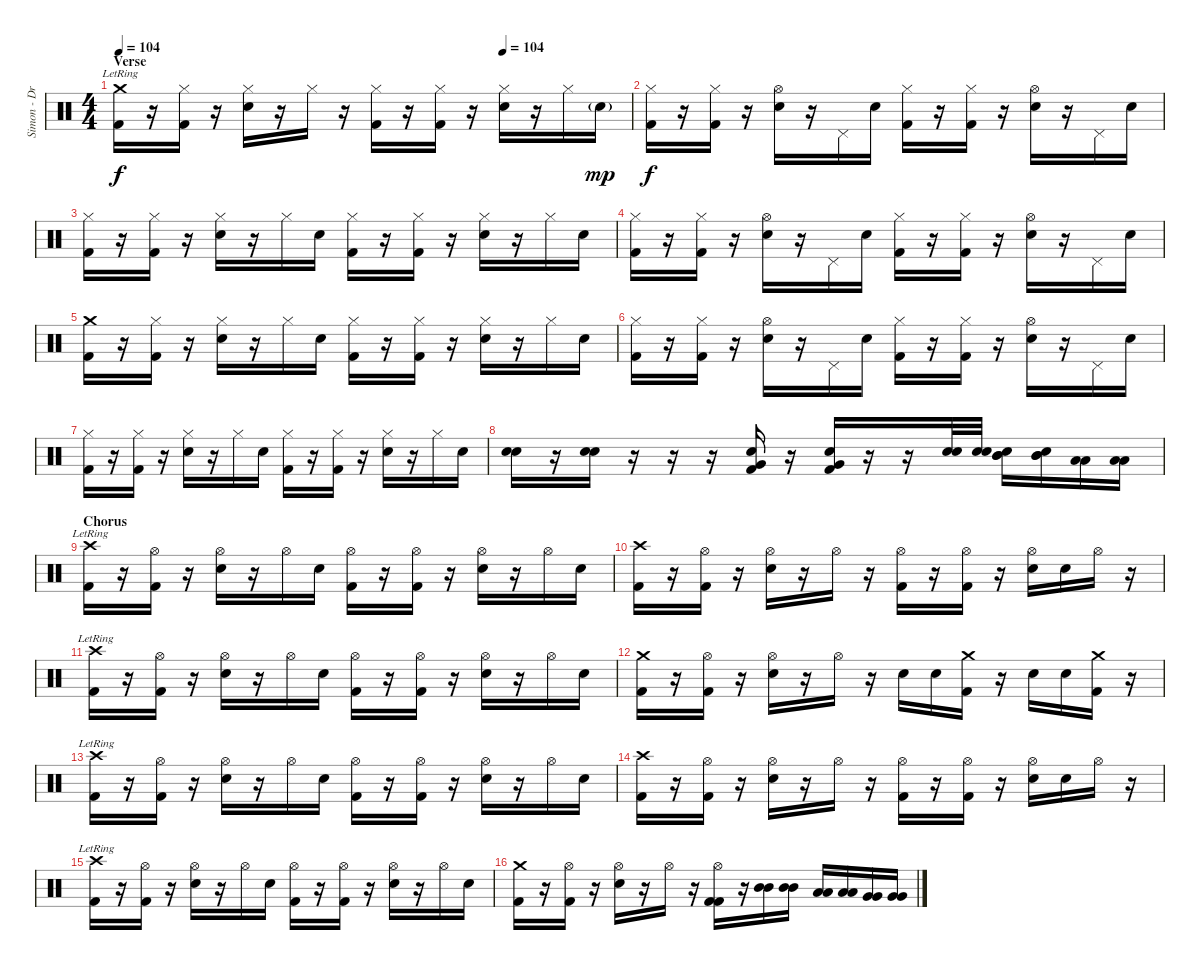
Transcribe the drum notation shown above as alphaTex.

\track ("Simon - Drums" "Simon - Dr") {instrument percussion}
\staff {score}
\articulation defaults
\ts (4 4)
\section ("" "Verse")
\tempo 104
\tempo (104 0.75)
\clef neutral
\ks c
("Crash medium (hit)"{lr} "Kick (hit) 2").16{dy f} r.16 ("Hi-Hat (closed)" "Kick (hit) 2").16 r.16 ("Hi-Hat (closed)" "Electric Snare (hit)").16 r.16 "Hi-Hat (closed)".16 r.16 ("Hi-Hat (closed)" "Kick (hit) 2").16 r.16 ("Hi-Hat (closed)" "Kick (hit) 2").16 r.16 ("Hi-Hat (closed)" "Electric Snare (hit)").16 r.16 "Hi-Hat (closed)".16 "Electric Snare (hit)"{g}.16{dy mp} |
("Hi-Hat (closed)" "Kick (hit) 2").16{dy f} r.16 ("Hi-Hat (closed)" "Kick (hit) 2").16 r.16 ("Hi-Hat (open)" "Electric Snare (hit)").16 r.16 "Pedal Hi-Hat (hit)".16 "Electric Snare (hit)".16 ("Hi-Hat (closed)" "Kick (hit) 2").16 r.16 ("Hi-Hat (closed)" "Kick (hit) 2").16 r.16 ("Hi-Hat (open)" "Electric Snare (hit)").16 r.16 "Pedal Hi-Hat (hit)".16 "Electric Snare (hit)".16 |
("Hi-Hat (closed)" "Kick (hit) 2").16 r.16 ("Hi-Hat (closed)" "Kick (hit) 2").16 r.16 ("Hi-Hat (closed)" "Electric Snare (hit)").16 r.16 "Hi-Hat (closed)".16 "Electric Snare (hit)".16 ("Hi-Hat (closed)" "Kick (hit) 2").16 r.16 ("Hi-Hat (closed)" "Kick (hit) 2").16 r.16 ("Hi-Hat (closed)" "Electric Snare (hit)").16 r.16 "Hi-Hat (closed)".16 "Electric Snare (hit)".16 |
("Hi-Hat (closed)" "Kick (hit) 2").16 r.16 ("Hi-Hat (closed)" "Kick (hit) 2").16 r.16 ("Hi-Hat (open)" "Electric Snare (hit)").16 r.16 "Pedal Hi-Hat (hit)".16 "Electric Snare (hit)".16 ("Hi-Hat (closed)" "Kick (hit) 2").16 r.16 ("Hi-Hat (closed)" "Kick (hit) 2").16 r.16 ("Hi-Hat (open)" "Electric Snare (hit)").16 r.16 "Pedal Hi-Hat (hit)".16 "Electric Snare (hit)".16 |
("Crash medium (hit)" "Kick (hit) 2").16 r.16 ("Hi-Hat (closed)" "Kick (hit) 2").16 r.16 ("Hi-Hat (closed)" "Electric Snare (hit)").16 r.16 "Hi-Hat (closed)".16 "Electric Snare (hit)".16 ("Hi-Hat (closed)" "Kick (hit) 2").16 r.16 ("Hi-Hat (closed)" "Kick (hit) 2").16 r.16 ("Hi-Hat (closed)" "Electric Snare (hit)").16 r.16 "Hi-Hat (closed)".16 "Electric Snare (hit)".16 |
("Hi-Hat (closed)" "Kick (hit) 2").16 r.16 ("Hi-Hat (closed)" "Kick (hit) 2").16 r.16 ("Hi-Hat (open)" "Electric Snare (hit)").16 r.16 "Pedal Hi-Hat (hit)".16 "Electric Snare (hit)".16 ("Hi-Hat (closed)" "Kick (hit) 2").16 r.16 ("Hi-Hat (closed)" "Kick (hit) 2").16 r.16 ("Hi-Hat (open)" "Electric Snare (hit)").16 r.16 "Pedal Hi-Hat (hit)".16 "Electric Snare (hit)".16 |
("Hi-Hat (closed)" "Kick (hit) 2").16 r.16 ("Hi-Hat (closed)" "Kick (hit) 2").16 r.16 ("Hi-Hat (closed)" "Electric Snare (hit)").16 r.16 "Hi-Hat (closed)".16 "Electric Snare (hit)".16 ("Hi-Hat (closed)" "Kick (hit) 2").16 r.16 ("Hi-Hat (closed)" "Kick (hit) 2").16 r.16 ("Hi-Hat (closed)" "Electric Snare (hit)").16 r.16 "Hi-Hat (closed)".16 "Electric Snare (hit)".16 |
("Electric Snare (hit)" "Electric Snare (hit)").16 r.16 ("Electric Snare (hit)" "Electric Snare (hit)").16 r.16 r.16 r.16 ("Very Low Tom (hit)" "Electric Snare (hit)" "Kick (hit) 2").16 r.16 ("Very Low Tom (hit)" "Electric Snare (hit)" "Kick (hit) 2").16 r.16 r.16 ("Electric Snare (hit)" "Electric Snare (hit)").32 ("Electric Snare (hit)" "Electric Snare (hit)").32 ("Mid Tom (hit)" "Mid Tom (hit)" "Electric Snare (hit)").16 ("Mid Tom (hit)" "Mid Tom (hit)" "Electric Snare (hit)").16 ("Low Tom (hit)" "Low Tom (hit)").16 ("Low Tom (hit)" "Low Tom (hit)").16 |
\section ("" "Chorus")
("Crash high (hit)"{lr} "Kick (hit) 2").16 r.16 ("Hi-Hat (open)" "Kick (hit) 2").16 r.16 ("Hi-Hat (open)" "Electric Snare (hit)").16 r.16 "Hi-Hat (open)".16 "Electric Snare (hit)".16 ("Hi-Hat (open)" "Kick (hit) 2").16 r.16 ("Hi-Hat (open)" "Kick (hit) 2").16 r.16 ("Hi-Hat (open)" "Electric Snare (hit)").16 r.16 "Hi-Hat (open)".16 "Electric Snare (hit)".16 |
("Crash high (hit)" "Kick (hit) 2").16 r.16 ("Hi-Hat (open)" "Kick (hit) 2").16 r.16 ("Hi-Hat (open)" "Electric Snare (hit)").16 r.16 "Hi-Hat (open)".16 r.16 ("Hi-Hat (open)" "Kick (hit) 2").16 r.16 ("Hi-Hat (open)" "Kick (hit) 2").16 r.16 ("Hi-Hat (open)" "Electric Snare (hit)").16 "Electric Snare (hit)".16 "Hi-Hat (open)".16 r.16 |
("Crash high (hit)"{lr} "Kick (hit) 2").16 r.16 ("Hi-Hat (open)" "Kick (hit) 2").16 r.16 ("Hi-Hat (open)" "Electric Snare (hit)").16 r.16 "Hi-Hat (open)".16 "Electric Snare (hit)".16 ("Hi-Hat (open)" "Kick (hit) 2").16 r.16 ("Hi-Hat (open)" "Kick (hit) 2").16 r.16 ("Hi-Hat (open)" "Electric Snare (hit)").16 r.16 "Hi-Hat (open)".16 "Electric Snare (hit)".16 |
("Crash medium (hit)" "Kick (hit) 2").16 r.16 ("Hi-Hat (open)" "Kick (hit) 2").16 r.16 ("Hi-Hat (open)" "Electric Snare (hit)").16 r.16 "Hi-Hat (open)".16 r.16 "Electric Snare (hit)".16 "Electric Snare (hit)".16 ("Crash medium (hit)" "Kick (hit) 2").16 r.16 "Electric Snare (hit)".16 "Electric Snare (hit)".16 ("Crash medium (hit)" "Kick (hit) 2").16 r.16 |
("Crash high (hit)"{lr} "Kick (hit) 2").16 r.16 ("Hi-Hat (open)" "Kick (hit) 2").16 r.16 ("Hi-Hat (open)" "Electric Snare (hit)").16 r.16 "Hi-Hat (open)".16 "Electric Snare (hit)".16 ("Hi-Hat (open)" "Kick (hit) 2").16 r.16 ("Hi-Hat (open)" "Kick (hit) 2").16 r.16 ("Hi-Hat (open)" "Electric Snare (hit)").16 r.16 "Hi-Hat (open)".16 "Electric Snare (hit)".16 |
("Crash high (hit)" "Kick (hit) 2").16 r.16 ("Hi-Hat (open)" "Kick (hit) 2").16 r.16 ("Hi-Hat (open)" "Electric Snare (hit)").16 r.16 "Hi-Hat (open)".16 r.16 ("Hi-Hat (open)" "Kick (hit) 2").16 r.16 ("Hi-Hat (open)" "Kick (hit) 2").16 r.16 ("Hi-Hat (open)" "Electric Snare (hit)").16 "Electric Snare (hit)".16 "Hi-Hat (open)".16 r.16 |
("Crash high (hit)"{lr} "Kick (hit) 2").16 r.16 ("Hi-Hat (open)" "Kick (hit) 2").16 r.16 ("Hi-Hat (open)" "Electric Snare (hit)").16 r.16 "Hi-Hat (open)".16 "Electric Snare (hit)".16 ("Hi-Hat (open)" "Kick (hit) 2").16 r.16 ("Hi-Hat (open)" "Kick (hit) 2").16 r.16 ("Hi-Hat (open)" "Electric Snare (hit)").16 r.16 "Hi-Hat (open)".16 "Electric Snare (hit)".16 |
("Crash medium (hit)" "Kick (hit) 2").16 r.16 ("Hi-Hat (open)" "Kick (hit) 2").16 r.16 ("Hi-Hat (open)" "Electric Snare (hit)").16 r.16 "Hi-Hat (open)".16 r.16 ("Hi-Hat (open)" "Kick (hit) 2" "Kick (hit) 2").16 r.16 ("Mid Tom (hit)" "Mid Tom (hit)").16 ("Mid Tom (hit)" "Mid Tom (hit)").16 ("Low Tom (hit)" "Low Tom (hit)").16 ("Low Tom (hit)" "Low Tom (hit)").16 ("Very Low Tom (hit)" "Very Low Tom (hit)").16 ("Very Low Tom (hit)" "Very Low Tom (hit)").16
